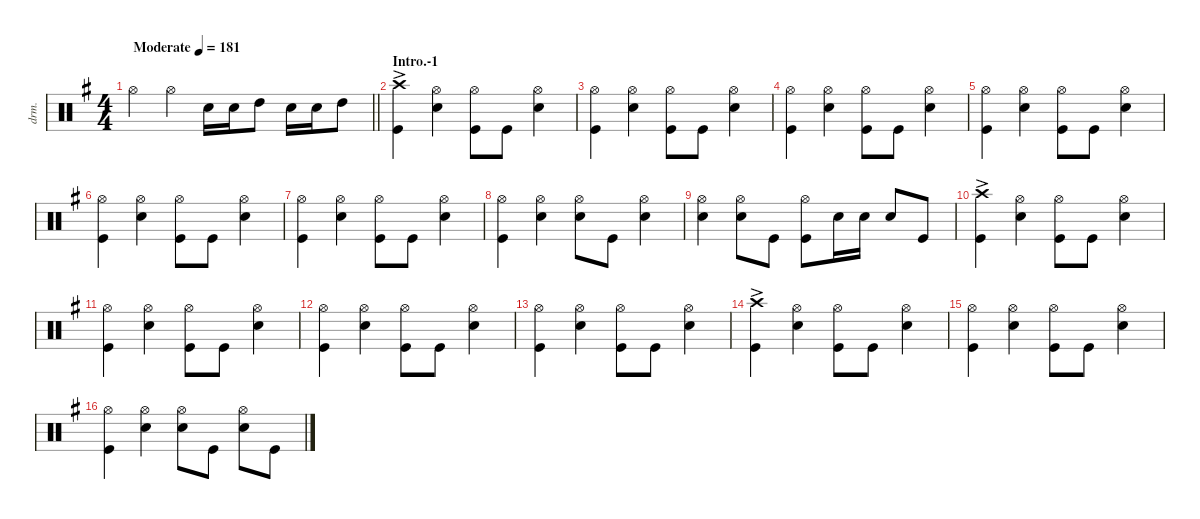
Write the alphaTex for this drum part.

\defaultSystemsLayout 4
\hideDynamics
\bracketExtendMode nobrackets
\track ("Drums" "drm.") {instrument percussion}
\staff {score}
\articulation defaults
\ts (4 4)
\beaming (8 2 2 2 2)
\tempo (181 "Moderate")
\clef neutral
\barLineRight lightlight
\ks g "Hi-Hat (open)"{acc forcenatural}.4{dy f} "Hi-Hat (open)"{acc forcenatural}.4 "Snare (hit) 2"{acc forcenatural}.16 "Snare (hit) 2"{acc forcenatural}.16 "High Tom (hit)"{acc forcenatural}.8 "Snare (hit) 2"{acc forcenatural}.16 "Snare (hit) 2"{acc forcenatural}.16 "High Tom (hit)"{acc forcenatural}.8
|
\section ("" "Intro.-1")
("Kick (hit)"{acc forcenatural} "Crash high (hit)"{ac acc forcenatural}).4 ("Hi-Hat (open)"{acc forcenatural} "Snare (hit) 2"{acc forcenatural}).4 ("Kick (hit)"{acc forcenatural} "Hi-Hat (open)"{acc forcenatural}).8 "Kick (hit)"{acc forcenatural}.8 ("Snare (hit) 2"{acc forcenatural} "Hi-Hat (open)"{acc forcenatural}).4 |
("Kick (hit)"{acc forcenatural} "Hi-Hat (open)"{acc forcenatural}).4 ("Hi-Hat (open)"{acc forcenatural} "Snare (hit) 2"{acc forcenatural}).4 ("Kick (hit)"{acc forcenatural} "Hi-Hat (open)"{acc forcenatural}).8 "Kick (hit)"{acc forcenatural}.8 ("Snare (hit) 2"{acc forcenatural} "Hi-Hat (open)"{acc forcenatural}).4 |
("Kick (hit)"{acc forcenatural} "Hi-Hat (open)"{acc forcenatural}).4 ("Hi-Hat (open)"{acc forcenatural} "Snare (hit) 2"{acc forcenatural}).4 ("Kick (hit)"{acc forcenatural} "Hi-Hat (open)"{acc forcenatural}).8 "Kick (hit)"{acc forcenatural}.8 ("Snare (hit) 2"{acc forcenatural} "Hi-Hat (open)"{acc forcenatural}).4 |
("Kick (hit)"{acc forcenatural} "Hi-Hat (open)"{acc forcenatural}).4 ("Hi-Hat (open)"{acc forcenatural} "Snare (hit) 2"{acc forcenatural}).4 ("Kick (hit)"{acc forcenatural} "Hi-Hat (open)"{acc forcenatural}).8 "Kick (hit)"{acc forcenatural}.8 ("Snare (hit) 2"{acc forcenatural} "Hi-Hat (open)"{acc forcenatural}).4 |
("Kick (hit)"{acc forcenatural} "Hi-Hat (open)"{acc forcenatural}).4 ("Hi-Hat (open)"{acc forcenatural} "Snare (hit) 2"{acc forcenatural}).4 ("Kick (hit)"{acc forcenatural} "Hi-Hat (open)"{acc forcenatural}).8 "Kick (hit)"{acc forcenatural}.8 ("Snare (hit) 2"{acc forcenatural} "Hi-Hat (open)"{acc forcenatural}).4 |
("Kick (hit)"{acc forcenatural} "Hi-Hat (open)"{acc forcenatural}).4 ("Hi-Hat (open)"{acc forcenatural} "Snare (hit) 2"{acc forcenatural}).4 ("Kick (hit)"{acc forcenatural} "Hi-Hat (open)"{acc forcenatural}).8 "Kick (hit)"{acc forcenatural}.8 ("Snare (hit) 2"{acc forcenatural} "Hi-Hat (open)"{acc forcenatural}).4 |
("Kick (hit)"{acc forcenatural} "Hi-Hat (open)"{acc forcenatural}).4 ("Hi-Hat (open)"{acc forcenatural} "Snare (hit) 2"{acc forcenatural}).4 ("Snare (hit) 2"{acc forcenatural} "Hi-Hat (open)"{acc forcenatural}).8 "Kick (hit)"{acc forcenatural}.8 ("Snare (hit) 2"{acc forcenatural} "Hi-Hat (open)"{acc forcenatural}).4 |
("Snare (hit) 2"{acc forcenatural} "Hi-Hat (open)"{acc forcenatural}).4 ("Snare (hit) 2"{acc forcenatural} "Hi-Hat (open)"{acc forcenatural}).8 "Kick (hit)"{acc forcenatural}.8 ("Kick (hit)"{acc forcenatural} "Hi-Hat (open)"{acc forcenatural}).8 "Snare (hit) 2"{acc forcenatural}.16 "Snare (hit) 2"{acc forcenatural}.16 "Snare (hit) 2"{acc forcenatural}.8 "Kick (hit)"{acc forcenatural}.8 |
("Kick (hit)"{acc forcenatural} "Crash high (hit)"{ac acc forcenatural}).4 ("Hi-Hat (open)"{acc forcenatural} "Snare (hit) 2"{acc forcenatural}).4 ("Kick (hit)"{acc forcenatural} "Hi-Hat (open)"{acc forcenatural}).8 "Kick (hit)"{acc forcenatural}.8 ("Snare (hit) 2"{acc forcenatural} "Hi-Hat (open)"{acc forcenatural}).4 |
("Kick (hit)"{acc forcenatural} "Hi-Hat (open)"{acc forcenatural}).4 ("Hi-Hat (open)"{acc forcenatural} "Snare (hit) 2"{acc forcenatural}).4 ("Kick (hit)"{acc forcenatural} "Hi-Hat (open)"{acc forcenatural}).8 "Kick (hit)"{acc forcenatural}.8 ("Snare (hit) 2"{acc forcenatural} "Hi-Hat (open)"{acc forcenatural}).4 |
("Kick (hit)"{acc forcenatural} "Hi-Hat (open)"{acc forcenatural}).4 ("Hi-Hat (open)"{acc forcenatural} "Snare (hit) 2"{acc forcenatural}).4 ("Kick (hit)"{acc forcenatural} "Hi-Hat (open)"{acc forcenatural}).8 "Kick (hit)"{acc forcenatural}.8 ("Snare (hit) 2"{acc forcenatural} "Hi-Hat (open)"{acc forcenatural}).4 |
("Kick (hit)"{acc forcenatural} "Hi-Hat (open)"{acc forcenatural}).4 ("Hi-Hat (open)"{acc forcenatural} "Snare (hit) 2"{acc forcenatural}).4 ("Kick (hit)"{acc forcenatural} "Hi-Hat (open)"{acc forcenatural}).8 "Kick (hit)"{acc forcenatural}.8 ("Snare (hit) 2"{acc forcenatural} "Hi-Hat (open)"{acc forcenatural}).4 |
("Kick (hit)"{acc forcenatural} "Crash high (hit)"{ac acc forcenatural}).4 ("Hi-Hat (open)"{acc forcenatural} "Snare (hit) 2"{acc forcenatural}).4 ("Kick (hit)"{acc forcenatural} "Hi-Hat (open)"{acc forcenatural}).8 "Kick (hit)"{acc forcenatural}.8 ("Snare (hit) 2"{acc forcenatural} "Hi-Hat (open)"{acc forcenatural}).4 |
("Kick (hit)"{acc forcenatural} "Hi-Hat (open)"{acc forcenatural}).4 ("Hi-Hat (open)"{acc forcenatural} "Snare (hit) 2"{acc forcenatural}).4 ("Kick (hit)"{acc forcenatural} "Hi-Hat (open)"{acc forcenatural}).8 "Kick (hit)"{acc forcenatural}.8 ("Snare (hit) 2"{acc forcenatural} "Hi-Hat (open)"{acc forcenatural}).4 |
("Kick (hit)"{acc forcenatural} "Hi-Hat (open)"{acc forcenatural}).4 ("Hi-Hat (open)"{acc forcenatural} "Snare (hit) 2"{acc forcenatural}).4 ("Snare (hit) 2"{acc forcenatural} "Hi-Hat (open)"{acc forcenatural}).8 "Kick (hit)"{acc forcenatural}.8 ("Hi-Hat (open)"{acc forcenatural} "Snare (hit) 2"{acc forcenatural}).8 "Kick (hit)"{acc forcenatural}.8
